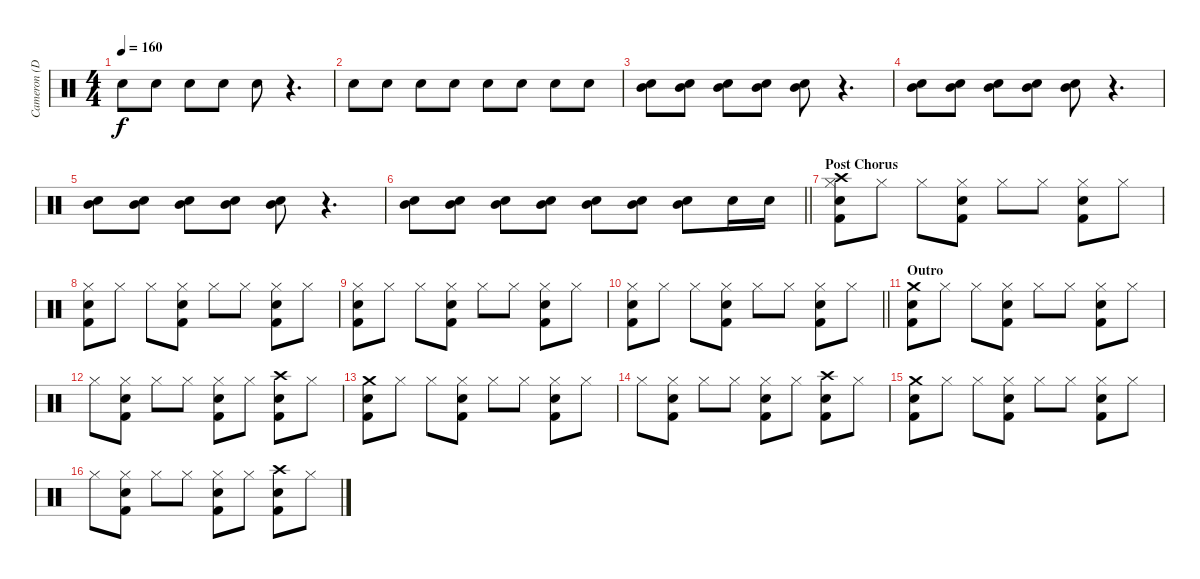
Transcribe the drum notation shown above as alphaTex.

\track ("Cameron (Drums)" "Cameron (D") {instrument percussion}
\staff {score}
\articulation defaults
\ts (4 4)
\tempo 160
\clef neutral
\ks c "Snare (hit) 2".8{dy f} "Snare (hit) 2".8 "Snare (hit) 2".8 "Snare (hit) 2".8 "Snare (hit) 2".8
r.4{d} |
"Snare (hit) 2".8 "Snare (hit) 2".8 "Snare (hit) 2".8 "Snare (hit) 2".8 "Snare (hit) 2".8 "Snare (hit) 2".8 "Snare (hit) 2".8 "Snare (hit) 2".8 |
("Snare (hit) 2" "Mid Tom (hit)").8 ("Snare (hit) 2" "Mid Tom (hit)").8 ("Snare (hit) 2" "Mid Tom (hit)").8 ("Snare (hit) 2" "Mid Tom (hit)").8 ("Snare (hit) 2" "Mid Tom (hit)").8 r.4{d} |
("Snare (hit) 2" "Mid Tom (hit)").8 ("Snare (hit) 2" "Mid Tom (hit)").8 ("Snare (hit) 2" "Mid Tom (hit)").8 ("Snare (hit) 2" "Mid Tom (hit)").8 ("Snare (hit) 2" "Mid Tom (hit)").8 r.4{d} |
("Snare (hit) 2" "Mid Tom (hit)").8 ("Snare (hit) 2" "Mid Tom (hit)").8 ("Snare (hit) 2" "Mid Tom (hit)").8 ("Snare (hit) 2" "Mid Tom (hit)").8 ("Snare (hit) 2" "Mid Tom (hit)").8 r.4{d} |
\barLineRight lightlight
("Snare (hit) 2" "Mid Tom (hit)").8 ("Snare (hit) 2" "Mid Tom (hit)").8 ("Snare (hit) 2" "Mid Tom (hit)").8 ("Snare (hit) 2" "Mid Tom (hit)").8 ("Snare (hit) 2" "Mid Tom (hit)").8 ("Snare (hit) 2" "Mid Tom (hit)").8 ("Snare (hit) 2" "Mid Tom (hit)").8 "Snare (hit) 2".16 "Snare (hit) 2".16 |
\section ("" "Post Chorus")
("Crash high (hit)" "Hi-Hat (closed)" "Snare (hit) 2" "Kick (hit) 2").8 "Hi-Hat (closed)".8 "Hi-Hat (closed)".8 ("Hi-Hat (closed)" "Snare (hit) 2" "Kick (hit) 2").8 "Hi-Hat (closed)".8 "Hi-Hat (closed)".8 ("Hi-Hat (closed)" "Snare (hit) 2" "Kick (hit) 2").8 "Hi-Hat (closed)".8 |
("Hi-Hat (closed)" "Snare (hit) 2" "Kick (hit) 2").8 "Hi-Hat (closed)".8 "Hi-Hat (closed)".8 ("Hi-Hat (closed)" "Snare (hit) 2" "Kick (hit) 2").8 "Hi-Hat (closed)".8 "Hi-Hat (closed)".8 ("Hi-Hat (closed)" "Snare (hit) 2" "Kick (hit) 2").8 "Hi-Hat (closed)".8 |
("Hi-Hat (closed)" "Snare (hit) 2" "Kick (hit) 2").8 "Hi-Hat (closed)".8 "Hi-Hat (closed)".8 ("Hi-Hat (closed)" "Snare (hit) 2" "Kick (hit) 2").8 "Hi-Hat (closed)".8 "Hi-Hat (closed)".8 ("Hi-Hat (closed)" "Snare (hit) 2" "Kick (hit) 2").8 "Hi-Hat (closed)".8 |
\barLineRight lightlight
("Hi-Hat (closed)" "Snare (hit) 2" "Kick (hit) 2").8 "Hi-Hat (closed)".8 "Hi-Hat (closed)".8 ("Hi-Hat (closed)" "Snare (hit) 2" "Kick (hit) 2").8 "Hi-Hat (closed)".8 "Hi-Hat (closed)".8 ("Hi-Hat (closed)" "Snare (hit) 2" "Kick (hit) 2").8 "Hi-Hat (closed)".8 |
\section ("" "Outro")
("Crash medium (hit)" "Snare (hit) 2" "Kick (hit) 2").8 "Hi-Hat (closed)".8 "Hi-Hat (closed)".8 ("Hi-Hat (closed)" "Snare (hit) 2" "Kick (hit) 2").8 "Hi-Hat (closed)".8 "Hi-Hat (closed)".8 ("Hi-Hat (closed)" "Snare (hit) 2" "Kick (hit) 2").8 "Hi-Hat (closed)".8 |
"Hi-Hat (closed)".8 ("Hi-Hat (closed)" "Snare (hit) 2" "Kick (hit) 2").8 "Hi-Hat (closed)".8 "Hi-Hat (closed)".8 ("Hi-Hat (closed)" "Snare (hit) 2" "Kick (hit) 2").8 "Hi-Hat (closed)".8 ("Crash high (hit)" "Snare (hit) 2" "Kick (hit) 2").8 "Hi-Hat (closed)".8 |
("Crash medium (hit)" "Snare (hit) 2" "Kick (hit) 2").8 "Hi-Hat (closed)".8 "Hi-Hat (closed)".8 ("Hi-Hat (closed)" "Snare (hit) 2" "Kick (hit) 2").8 "Hi-Hat (closed)".8 "Hi-Hat (closed)".8 ("Hi-Hat (closed)" "Snare (hit) 2" "Kick (hit) 2").8 "Hi-Hat (closed)".8 |
"Hi-Hat (closed)".8 ("Hi-Hat (closed)" "Snare (hit) 2" "Kick (hit) 2").8 "Hi-Hat (closed)".8 "Hi-Hat (closed)".8 ("Hi-Hat (closed)" "Snare (hit) 2" "Kick (hit) 2").8 "Hi-Hat (closed)".8 ("Crash high (hit)" "Snare (hit) 2" "Kick (hit) 2").8 "Hi-Hat (closed)".8 |
("Crash medium (hit)" "Snare (hit) 2" "Kick (hit) 2").8 "Hi-Hat (closed)".8 "Hi-Hat (closed)".8 ("Hi-Hat (closed)" "Snare (hit) 2" "Kick (hit) 2").8 "Hi-Hat (closed)".8 "Hi-Hat (closed)".8 ("Hi-Hat (closed)" "Snare (hit) 2" "Kick (hit) 2").8 "Hi-Hat (closed)".8 |
"Hi-Hat (closed)".8 ("Hi-Hat (closed)" "Snare (hit) 2" "Kick (hit) 2").8 "Hi-Hat (closed)".8 "Hi-Hat (closed)".8 ("Hi-Hat (closed)" "Snare (hit) 2" "Kick (hit) 2").8 "Hi-Hat (closed)".8 ("Crash high (hit)" "Snare (hit) 2" "Kick (hit) 2").8 "Hi-Hat (closed)".8
